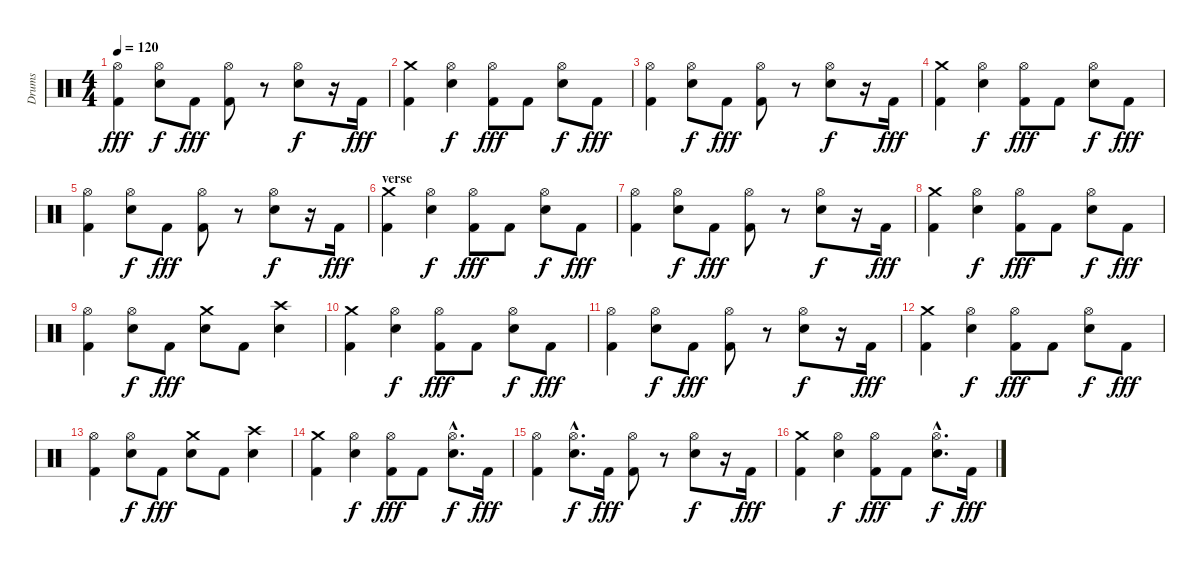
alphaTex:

\track ("Drums" "Drums") {instrument percussion}
\staff {score}
\articulation defaults
\ts (4 4)
\tempo 120
\clef neutral
\ks c
("Kick (hit) 2" "Hi-Hat (open)").4{dy fff} ("Electric Snare (hit)" "Hi-Hat (open)").8{dy f} "Kick (hit) 2".8{dy fff} ("Kick (hit) 2" "Hi-Hat (open)").8 r.8 ("Electric Snare (hit)" "Hi-Hat (open)").8{dy f} r.16 "Kick (hit) 2".16{dy fff} |
("Kick (hit) 2" "Crash medium (hit)").4 ("Electric Snare (hit)" "Hi-Hat (open)").4{dy f} ("Kick (hit) 2" "Hi-Hat (open)").8{dy fff} "Kick (hit) 2".8 ("Electric Snare (hit)" "Hi-Hat (open)").8{dy f} "Kick (hit) 2".8{dy fff} |
("Kick (hit) 2" "Hi-Hat (open)").4 ("Electric Snare (hit)" "Hi-Hat (open)").8{dy f} "Kick (hit) 2".8{dy fff} ("Kick (hit) 2" "Hi-Hat (open)").8 r.8 ("Electric Snare (hit)" "Hi-Hat (open)").8{dy f} r.16 "Kick (hit) 2".16{dy fff} |
("Kick (hit) 2" "Crash medium (hit)").4 ("Electric Snare (hit)" "Hi-Hat (open)").4{dy f} ("Kick (hit) 2" "Hi-Hat (open)").8{dy fff} "Kick (hit) 2".8 ("Electric Snare (hit)" "Hi-Hat (open)").8{dy f} "Kick (hit) 2".8{dy fff} |
("Kick (hit) 2" "Hi-Hat (open)").4 ("Electric Snare (hit)" "Hi-Hat (open)").8{dy f} "Kick (hit) 2".8{dy fff} ("Kick (hit) 2" "Hi-Hat (open)").8 r.8 ("Electric Snare (hit)" "Hi-Hat (open)").8{dy f} r.16 "Kick (hit) 2".16{dy fff} |
\section ("" "verse")
("Kick (hit) 2" "Crash medium (hit)").4 ("Electric Snare (hit)" "Hi-Hat (open)").4{dy f} ("Kick (hit) 2" "Hi-Hat (open)").8{dy fff} "Kick (hit) 2".8 ("Electric Snare (hit)" "Hi-Hat (open)").8{dy f} "Kick (hit) 2".8{dy fff} |
("Kick (hit) 2" "Hi-Hat (open)").4 ("Electric Snare (hit)" "Hi-Hat (open)").8{dy f} "Kick (hit) 2".8{dy fff} ("Kick (hit) 2" "Hi-Hat (open)").8 r.8 ("Electric Snare (hit)" "Hi-Hat (open)").8{dy f} r.16 "Kick (hit) 2".16{dy fff} |
("Kick (hit) 2" "Crash medium (hit)").4 ("Electric Snare (hit)" "Hi-Hat (open)").4{dy f} ("Kick (hit) 2" "Hi-Hat (open)").8{dy fff} "Kick (hit) 2".8 ("Electric Snare (hit)" "Hi-Hat (open)").8{dy f} "Kick (hit) 2".8{dy fff} |
("Kick (hit) 2" "Hi-Hat (open)").4 ("Electric Snare (hit)" "Hi-Hat (open)").8{dy f} "Kick (hit) 2".8{dy fff} ("Electric Snare (hit)" "Crash medium (hit)").8 "Kick (hit) 2".8 ("Electric Snare (hit)" "Crash high (hit)").4 |
("Kick (hit) 2" "Crash medium (hit)").4 ("Electric Snare (hit)" "Hi-Hat (open)").4{dy f} ("Kick (hit) 2" "Hi-Hat (open)").8{dy fff} "Kick (hit) 2".8 ("Electric Snare (hit)" "Hi-Hat (open)").8{dy f} "Kick (hit) 2".8{dy fff} |
("Kick (hit) 2" "Hi-Hat (open)").4 ("Electric Snare (hit)" "Hi-Hat (open)").8{dy f} "Kick (hit) 2".8{dy fff} ("Kick (hit) 2" "Hi-Hat (open)").8 r.8 ("Electric Snare (hit)" "Hi-Hat (open)").8{dy f} r.16 "Kick (hit) 2".16{dy fff} |
("Kick (hit) 2" "Crash medium (hit)").4 ("Electric Snare (hit)" "Hi-Hat (open)").4{dy f} ("Kick (hit) 2" "Hi-Hat (open)").8{dy fff} "Kick (hit) 2".8 ("Electric Snare (hit)" "Hi-Hat (open)").8{dy f} "Kick (hit) 2".8{dy fff} |
("Kick (hit) 2" "Hi-Hat (open)").4 ("Electric Snare (hit)" "Hi-Hat (open)").8{dy f} "Kick (hit) 2".8{dy fff} ("Electric Snare (hit)" "Crash medium (hit)").8 "Kick (hit) 2".8 ("Electric Snare (hit)" "Crash high (hit)").4 |
("Kick (hit) 2" "Crash medium (hit)").4 ("Electric Snare (hit)" "Hi-Hat (open)").4{dy f} ("Kick (hit) 2" "Hi-Hat (open)").8{dy fff} "Kick (hit) 2".8 ("Electric Snare (hit)"{hac} "Hi-Hat (open)"{hac}).8{d dy f} "Kick (hit) 2".16{dy fff} |
("Kick (hit) 2" "Hi-Hat (open)").4 ("Electric Snare (hit)"{hac} "Hi-Hat (open)"{hac}).8{d dy f} "Kick (hit) 2".16{dy fff} ("Kick (hit) 2" "Hi-Hat (open)").8 r.8 ("Electric Snare (hit)" "Hi-Hat (open)").8{dy f} r.16 "Kick (hit) 2".16{dy fff} |
("Kick (hit) 2" "Crash medium (hit)").4 ("Electric Snare (hit)" "Hi-Hat (open)").4{dy f} ("Kick (hit) 2" "Hi-Hat (open)").8{dy fff} "Kick (hit) 2".8 ("Electric Snare (hit)"{hac} "Hi-Hat (open)"{hac}).8{d dy f} "Kick (hit) 2".16{dy fff}
